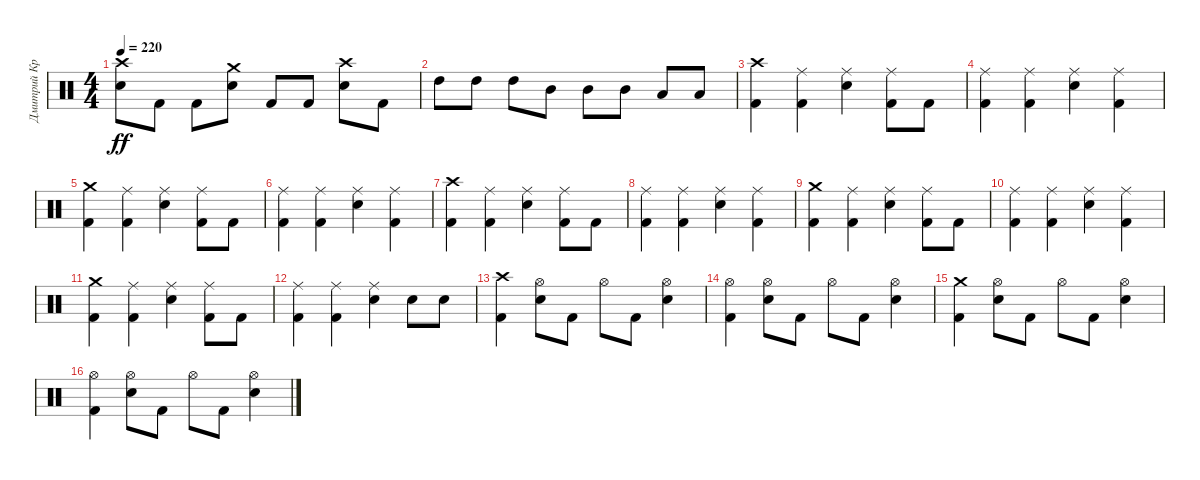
\track ("Дмитрий Кривенков" "Дмитрий Кр") {instrument percussion}
\staff {score}
\articulation defaults
\ts (4 4)
\tempo 220
\clef neutral
\ks c
("Crash high (hit)" "Snare (hit) 2").8{dy ff} "Kick (hit) 2".8 "Kick (hit) 2".8 ("Crash medium (hit)" "Snare (hit) 2").8 "Kick (hit) 2".8 "Kick (hit) 2".8 ("Crash high (hit)" "Snare (hit) 2").8 "Kick (hit) 2".8 |
"High Tom (hit)".8 "High Tom (hit)".8 "High Tom (hit)".8 "Mid Tom (hit)".8 "Mid Tom (hit)".8 "Mid Tom (hit)".8 "Low Tom (hit)".8 "Low Tom (hit)".8 |
("Crash high (hit)" "Kick (hit) 2").4 ("Ride (middle)" "Kick (hit) 2").4 ("Ride (middle)" "Snare (hit) 2").4 ("Ride (middle)" "Kick (hit) 2").8 "Kick (hit) 2".8 |
("Ride (middle)" "Kick (hit) 2").4 ("Ride (middle)" "Kick (hit) 2").4 ("Ride (middle)" "Snare (hit) 2").4 ("Ride (middle)" "Kick (hit) 2").4 |
("Crash medium (hit)" "Kick (hit) 2").4 ("Ride (middle)" "Kick (hit) 2").4 ("Ride (middle)" "Snare (hit) 2").4 ("Ride (middle)" "Kick (hit) 2").8 "Kick (hit) 2".8 |
("Ride (middle)" "Kick (hit) 2").4 ("Ride (middle)" "Kick (hit) 2").4 ("Ride (middle)" "Snare (hit) 2").4 ("Ride (middle)" "Kick (hit) 2").4 |
("Crash high (hit)" "Kick (hit) 2").4 ("Ride (middle)" "Kick (hit) 2").4 ("Ride (middle)" "Snare (hit) 2").4 ("Ride (middle)" "Kick (hit) 2").8 "Kick (hit) 2".8 |
("Ride (middle)" "Kick (hit) 2").4 ("Ride (middle)" "Kick (hit) 2").4 ("Ride (middle)" "Snare (hit) 2").4 ("Ride (middle)" "Kick (hit) 2").4 |
("Crash medium (hit)" "Kick (hit) 2").4 ("Ride (middle)" "Kick (hit) 2").4 ("Ride (middle)" "Snare (hit) 2").4 ("Ride (middle)" "Kick (hit) 2").8 "Kick (hit) 2".8 |
("Ride (middle)" "Kick (hit) 2").4 ("Ride (middle)" "Kick (hit) 2").4 ("Ride (middle)" "Snare (hit) 2").4 ("Ride (middle)" "Kick (hit) 2").4 |
("Crash medium (hit)" "Kick (hit) 2").4 ("Ride (middle)" "Kick (hit) 2").4 ("Ride (middle)" "Snare (hit) 2").4 ("Ride (middle)" "Kick (hit) 2").8 "Kick (hit) 2".8 |
("Ride (middle)" "Kick (hit) 2").4 ("Ride (middle)" "Kick (hit) 2").4 ("Ride (middle)" "Snare (hit) 2").4 "Snare (hit) 2".8 "Snare (hit) 2".8 |
("Crash high (hit)" "Kick (hit) 2").4 ("Hi-Hat (open)" "Snare (hit) 2").8 "Kick (hit) 2".8 "Hi-Hat (open)".8 "Kick (hit) 2".8 ("Hi-Hat (open)" "Snare (hit) 2").4 |
("Kick (hit) 2" "Hi-Hat (open)").4 ("Snare (hit) 2" "Hi-Hat (open)").8 "Kick (hit) 2".8 "Hi-Hat (open)".8 "Kick (hit) 2".8 ("Hi-Hat (open)" "Snare (hit) 2").4 |
("Crash medium (hit)" "Kick (hit) 2").4 ("Hi-Hat (open)" "Snare (hit) 2").8 "Kick (hit) 2".8 "Hi-Hat (open)".8 "Kick (hit) 2".8 ("Hi-Hat (open)" "Snare (hit) 2").4 |
("Kick (hit) 2" "Hi-Hat (open)").4 ("Snare (hit) 2" "Hi-Hat (open)").8 "Kick (hit) 2".8 "Hi-Hat (open)".8 "Kick (hit) 2".8 ("Hi-Hat (open)" "Snare (hit) 2").4
